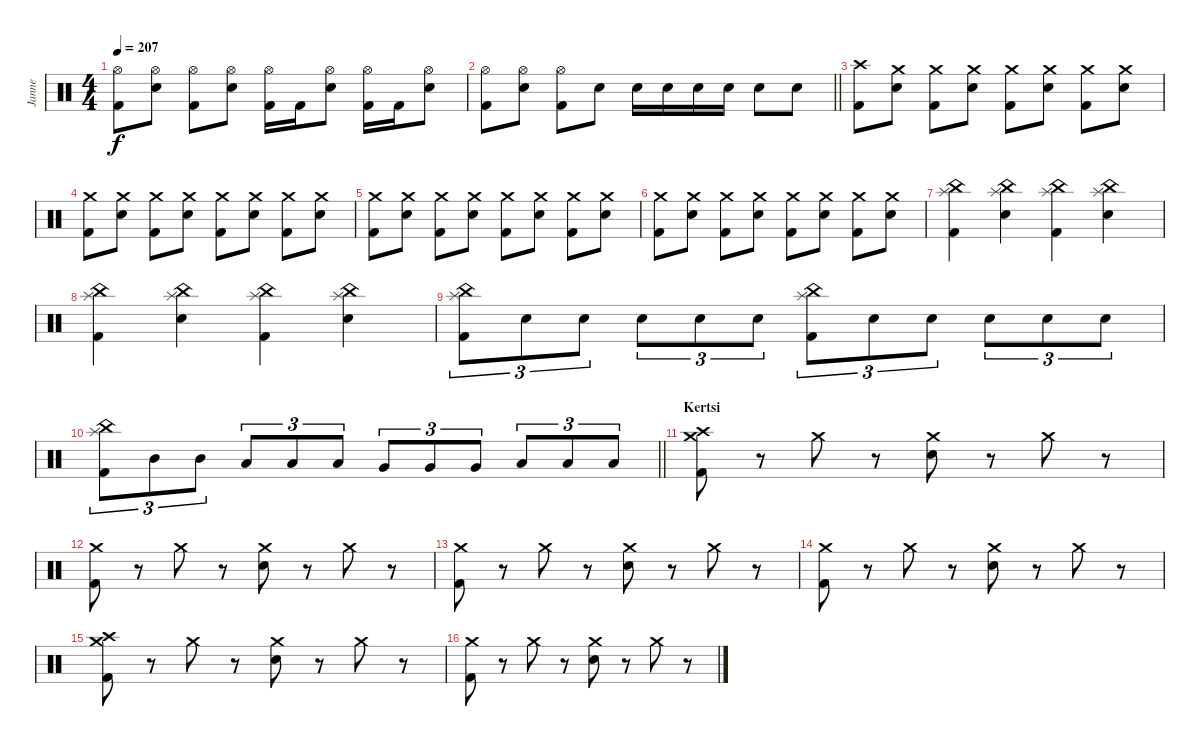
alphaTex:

\track ("Janne" "Janne") {instrument percussion}
\staff {score}
\articulation defaults
\ts (4 4)
\tempo 207
\clef neutral
\ks c
("Hi-Hat (open)" "Kick (hit) 2").8{dy f} ("Hi-Hat (open)" "Electric Snare (hit)").8 ("Hi-Hat (open)" "Kick (hit) 2").8 ("Hi-Hat (open)" "Electric Snare (hit)").8 ("Hi-Hat (open)" "Kick (hit) 2").16 "Kick (hit) 2".16 ("Hi-Hat (open)" "Electric Snare (hit)").8 ("Hi-Hat (open)" "Kick (hit) 2").16 "Kick (hit) 2".16 ("Hi-Hat (open)" "Electric Snare (hit)").8 |
\barLineRight lightlight
("Hi-Hat (open)" "Kick (hit) 2").8 ("Hi-Hat (open)" "Electric Snare (hit)").8 ("Hi-Hat (open)" "Kick (hit) 2").8 "Electric Snare (hit)".8 "Electric Snare (hit)".16 "Electric Snare (hit)".16 "Electric Snare (hit)".16 "Electric Snare (hit)".16 "Electric Snare (hit)".8 "Electric Snare (hit)".8 |
\section ("" "")
("Crash high (hit)" "Kick (hit) 2").8 ("Crash medium (hit)" "Electric Snare (hit)").8 ("Crash medium (hit)" "Kick (hit) 2").8 ("Crash medium (hit)" "Electric Snare (hit)").8 ("Crash medium (hit)" "Kick (hit) 2").8 ("Crash medium (hit)" "Electric Snare (hit)").8 ("Crash medium (hit)" "Kick (hit) 2").8 ("Crash medium (hit)" "Electric Snare (hit)").8 |
("Crash medium (hit)" "Kick (hit) 2").8 ("Crash medium (hit)" "Electric Snare (hit)").8 ("Crash medium (hit)" "Kick (hit) 2").8 ("Crash medium (hit)" "Electric Snare (hit)").8 ("Crash medium (hit)" "Kick (hit) 2").8 ("Crash medium (hit)" "Electric Snare (hit)").8 ("Crash medium (hit)" "Kick (hit) 2").8 ("Crash medium (hit)" "Electric Snare (hit)").8 |
("Crash medium (hit)" "Kick (hit) 2").8 ("Crash medium (hit)" "Electric Snare (hit)").8 ("Crash medium (hit)" "Kick (hit) 2").8 ("Crash medium (hit)" "Electric Snare (hit)").8 ("Crash medium (hit)" "Kick (hit) 2").8 ("Crash medium (hit)" "Electric Snare (hit)").8 ("Crash medium (hit)" "Kick (hit) 2").8 ("Crash medium (hit)" "Electric Snare (hit)").8 |
("Crash medium (hit)" "Kick (hit) 2").8 ("Crash medium (hit)" "Electric Snare (hit)").8 ("Crash medium (hit)" "Kick (hit) 2").8 ("Crash medium (hit)" "Electric Snare (hit)").8 ("Crash medium (hit)" "Kick (hit) 2").8 ("Crash medium (hit)" "Electric Snare (hit)").8 ("Crash medium (hit)" "Kick (hit) 2").8 ("Crash medium (hit)" "Electric Snare (hit)").8 |
("Splash (hit)" "China (hit)" "Kick (hit) 2").4 ("Splash (hit)" "China (hit)" "Electric Snare (hit)").4 ("Splash (hit)" "China (hit)" "Kick (hit) 2").4 ("Splash (hit)" "China (hit)" "Electric Snare (hit)").4 |
("Splash (hit)" "China (hit)" "Kick (hit) 2").4 ("Splash (hit)" "China (hit)" "Electric Snare (hit)").4 ("Splash (hit)" "China (hit)" "Kick (hit) 2").4 ("Splash (hit)" "China (hit)" "Electric Snare (hit)").4 |
("Splash (hit)" "China (hit)" "Kick (hit) 2").8{tu (3 2)} "Electric Snare (hit)".8{tu (3 2)} "Electric Snare (hit)".8{tu (3 2)} "Electric Snare (hit)".8{tu (3 2)} "Electric Snare (hit)".8{tu (3 2)} "Electric Snare (hit)".8{tu (3 2)} ("Splash (hit)" "China (hit)" "Kick (hit) 2").8{tu (3 2)} "Electric Snare (hit)".8{tu (3 2)} "Electric Snare (hit)".8{tu (3 2)} "Electric Snare (hit)".8{tu (3 2)} "Electric Snare (hit)".8{tu (3 2)} "Electric Snare (hit)".8{tu (3 2)} |
\barLineRight lightlight
("Splash (hit)" "China (hit)" "Kick (hit) 2").8{tu (3 2)} "Mid Tom (hit)".8{tu (3 2)} "Mid Tom (hit)".8{tu (3 2)} "Low Tom (hit)".8{tu (3 2)} "Low Tom (hit)".8{tu (3 2)} "Low Tom (hit)".8{tu (3 2)} "Very Low Tom (hit)".8{tu (3 2)} "Very Low Tom (hit)".8{tu (3 2)} "Very Low Tom (hit)".8{tu (3 2)} "Low Floor Tom (hit)".8{tu (3 2)} "Low Floor Tom (hit)".8{tu (3 2)} "Low Floor Tom (hit)".8{tu (3 2)} |
\section ("" "Kertsi")
("Crash high (hit)" "Crash medium (hit)" "Kick (hit) 2").8 r.8 "Crash medium (hit)".8 r.8 ("Crash medium (hit)" "Electric Snare (hit)").8 r.8 "Crash medium (hit)".8 r.8 |
("Crash medium (hit)" "Kick (hit) 2").8 r.8 "Crash medium (hit)".8 r.8 ("Crash medium (hit)" "Electric Snare (hit)").8 r.8 "Crash medium (hit)".8 r.8 |
("Crash medium (hit)" "Kick (hit) 2").8 r.8 "Crash medium (hit)".8 r.8 ("Crash medium (hit)" "Electric Snare (hit)").8 r.8 "Crash medium (hit)".8 r.8 |
("Crash medium (hit)" "Kick (hit) 2").8 r.8 "Crash medium (hit)".8 r.8 ("Crash medium (hit)" "Electric Snare (hit)").8 r.8 "Crash medium (hit)".8 r.8 |
("Crash high (hit)" "Crash medium (hit)" "Kick (hit) 2").8 r.8 "Crash medium (hit)".8 r.8 ("Crash medium (hit)" "Electric Snare (hit)").8 r.8 "Crash medium (hit)".8 r.8 |
("Crash medium (hit)" "Kick (hit) 2").8 r.8 "Crash medium (hit)".8 r.8 ("Crash medium (hit)" "Electric Snare (hit)").8 r.8 "Crash medium (hit)".8 r.8
